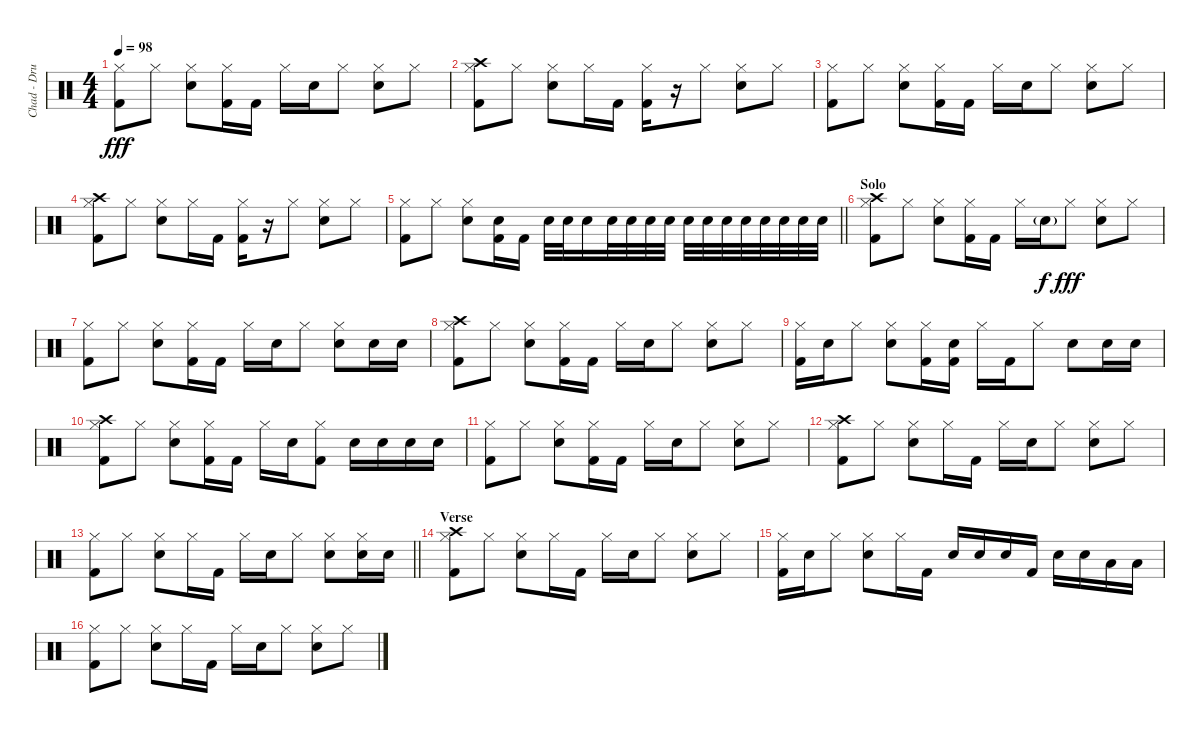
\track ("Chad - Drums" "Chad - Dru") {instrument percussion}
\staff {score}
\articulation defaults
\ts (4 4)
\tempo 98
\clef neutral
\ks c
("Hi-Hat (closed)" "Kick (hit) 2").8{dy fff} "Hi-Hat (closed)".8 ("Snare (hit) 2" "Hi-Hat (closed)").8 ("Hi-Hat (closed)" "Kick (hit) 2").16 "Kick (hit) 2".16 "Hi-Hat (closed)".16 "Snare (hit) 2".16 "Hi-Hat (closed)".8 ("Snare (hit) 2" "Hi-Hat (closed)").8 "Hi-Hat (closed)".8 |
("Hi-Hat (closed)" "Crash high (hit)" "Kick (hit) 2").8 "Hi-Hat (closed)".8 ("Snare (hit) 2" "Hi-Hat (closed)").8 "Hi-Hat (closed)".16 "Kick (hit) 2".16 ("Hi-Hat (closed)" "Kick (hit) 2").16 r.16 "Hi-Hat (closed)".8 ("Snare (hit) 2" "Hi-Hat (closed)").8 "Hi-Hat (closed)".8 |
("Hi-Hat (closed)" "Kick (hit) 2").8 "Hi-Hat (closed)".8 ("Snare (hit) 2" "Hi-Hat (closed)").8 ("Hi-Hat (closed)" "Kick (hit) 2").16 "Kick (hit) 2".16 "Hi-Hat (closed)".16 "Snare (hit) 2".16 "Hi-Hat (closed)".8 ("Snare (hit) 2" "Hi-Hat (closed)").8 "Hi-Hat (closed)".8 |
("Hi-Hat (closed)" "Crash high (hit)" "Kick (hit) 2").8 "Hi-Hat (closed)".8 ("Snare (hit) 2" "Hi-Hat (closed)").8 "Hi-Hat (closed)".16 "Kick (hit) 2".16 ("Hi-Hat (closed)" "Kick (hit) 2").16 r.16 "Hi-Hat (closed)".8 ("Snare (hit) 2" "Hi-Hat (closed)").8 "Hi-Hat (closed)".8 |
\barLineRight lightlight
("Hi-Hat (closed)" "Kick (hit) 2").8 "Hi-Hat (closed)".8 ("Snare (hit) 2" "Hi-Hat (closed)").8 ("Snare (hit) 2" "Kick (hit) 2").16 "Kick (hit) 2".16 "Snare (hit) 2".32 "Snare (hit) 2".32 "Snare (hit) 2".16 "Snare (hit) 2".32 "Snare (hit) 2".32 "Snare (hit) 2".32 "Snare (hit) 2".32 "Snare (hit) 2".32 "Snare (hit) 2".32 "Snare (hit) 2".32 "Snare (hit) 2".32 "Snare (hit) 2".32 "Snare (hit) 2".32 "Snare (hit) 2".32 "Snare (hit) 2".32 |
\section ("" "Solo")
("Hi-Hat (closed)" "Crash high (hit)" "Kick (hit) 2").8 "Hi-Hat (closed)".8 ("Snare (hit) 2" "Hi-Hat (closed)").8 ("Hi-Hat (closed)" "Kick (hit) 2").16 "Kick (hit) 2".16 "Hi-Hat (closed)".16 "Snare (hit) 2"{g}.16{dy f} "Hi-Hat (closed)".8{dy fff} ("Snare (hit) 2" "Hi-Hat (closed)").8 "Hi-Hat (closed)".8 |
("Hi-Hat (closed)" "Kick (hit) 2").8 "Hi-Hat (closed)".8 ("Snare (hit) 2" "Hi-Hat (closed)").8 ("Hi-Hat (closed)" "Kick (hit) 2").16 "Kick (hit) 2".16 "Hi-Hat (closed)".16 "Snare (hit) 2".16 "Hi-Hat (closed)".8 ("Snare (hit) 2" "Hi-Hat (closed)").8 "Snare (hit) 2".16 "Snare (hit) 2".16 |
("Hi-Hat (closed)" "Crash high (hit)" "Kick (hit) 2").8 "Hi-Hat (closed)".8 ("Snare (hit) 2" "Hi-Hat (closed)").8 ("Hi-Hat (closed)" "Kick (hit) 2").16 "Kick (hit) 2".16 "Hi-Hat (closed)".16 "Snare (hit) 2".16 "Hi-Hat (closed)".8 ("Snare (hit) 2" "Hi-Hat (closed)").8 "Hi-Hat (closed)".8 |
("Hi-Hat (closed)" "Kick (hit) 2").16 "Snare (hit) 2".16 "Hi-Hat (closed)".8 ("Snare (hit) 2" "Hi-Hat (closed)").8 ("Hi-Hat (closed)" "Kick (hit) 2").16 ("Snare (hit) 2" "Kick (hit) 2").16 "Hi-Hat (closed)".16 "Kick (hit) 2".16 "Hi-Hat (closed)".8 "Snare (hit) 2".8 "Snare (hit) 2".16 "Snare (hit) 2".16 |
("Hi-Hat (closed)" "Crash high (hit)" "Kick (hit) 2").8 "Hi-Hat (closed)".8 ("Snare (hit) 2" "Hi-Hat (closed)").8 ("Hi-Hat (closed)" "Kick (hit) 2").16 "Kick (hit) 2".16 "Hi-Hat (closed)".16 "Snare (hit) 2".16 ("Hi-Hat (closed)" "Kick (hit) 2").8 "Snare (hit) 2".16 "Snare (hit) 2".16 "Snare (hit) 2".16 "Snare (hit) 2".16 |
("Hi-Hat (closed)" "Kick (hit) 2").8 "Hi-Hat (closed)".8 ("Snare (hit) 2" "Hi-Hat (closed)").8 ("Hi-Hat (closed)" "Kick (hit) 2").16 "Kick (hit) 2".16 "Hi-Hat (closed)".16 "Snare (hit) 2".16 "Hi-Hat (closed)".8 ("Snare (hit) 2" "Hi-Hat (closed)").8 "Hi-Hat (closed)".8 |
("Hi-Hat (closed)" "Crash high (hit)" "Kick (hit) 2").8 "Hi-Hat (closed)".8 ("Snare (hit) 2" "Hi-Hat (closed)").8 "Hi-Hat (closed)".16 "Kick (hit) 2".16 "Hi-Hat (closed)".16 "Snare (hit) 2".16 "Hi-Hat (closed)".8 ("Snare (hit) 2" "Hi-Hat (closed)").8 "Hi-Hat (closed)".8 |
\barLineRight lightlight
("Hi-Hat (closed)" "Kick (hit) 2").8 "Hi-Hat (closed)".8 ("Snare (hit) 2" "Hi-Hat (closed)").8 "Hi-Hat (closed)".16 "Kick (hit) 2".16 "Hi-Hat (closed)".16 "Snare (hit) 2".16 "Hi-Hat (closed)".8 ("Snare (hit) 2" "Hi-Hat (closed)").8 ("Snare (hit) 2" "Hi-Hat (closed)").16 "Snare (hit) 2".16 |
\section ("" "Verse")
("Hi-Hat (closed)" "Crash high (hit)" "Kick (hit) 2").8 "Hi-Hat (closed)".8 ("Snare (hit) 2" "Hi-Hat (closed)").8 "Hi-Hat (closed)".16 "Kick (hit) 2".16 "Hi-Hat (closed)".16 "Snare (hit) 2".16 "Hi-Hat (closed)".8 ("Snare (hit) 2" "Hi-Hat (closed)").8 "Hi-Hat (closed)".8 |
("Hi-Hat (closed)" "Kick (hit) 2").16 "Snare (hit) 2".16 "Hi-Hat (closed)".8 ("Snare (hit) 2" "Hi-Hat (closed)").8 "Hi-Hat (closed)".16 "Kick (hit) 2".16 "Snare (hit) 2".16 "Snare (hit) 2".16 "Snare (hit) 2".16 "Kick (hit) 2".16 "Snare (hit) 2".16 "Snare (hit) 2".16 "Low Tom (hit)".16 "Low Tom (hit)".16 |
("Hi-Hat (closed)" "Kick (hit) 2").8 "Hi-Hat (closed)".8 ("Snare (hit) 2" "Hi-Hat (closed)").8 "Hi-Hat (closed)".16 "Kick (hit) 2".16 "Hi-Hat (closed)".16 "Snare (hit) 2".16 "Hi-Hat (closed)".8 ("Snare (hit) 2" "Hi-Hat (closed)").8 "Hi-Hat (closed)".8
